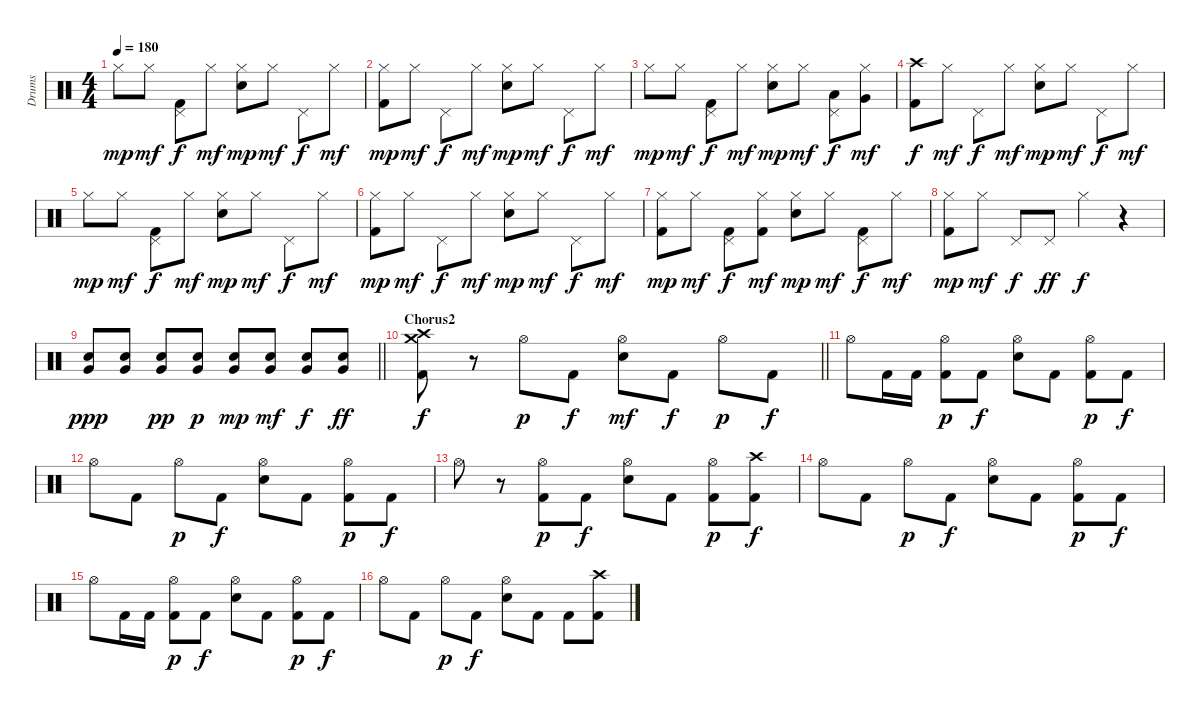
\track ("Drums" "Drums") {instrument percussion}
\staff {score}
\articulation defaults
\ts (4 4)
\tempo 180
\clef neutral
\ks c "Hi-Hat (closed)".8{dy mp} "Hi-Hat (closed)".8{dy mf}
("Kick (hit) 2" "Pedal Hi-Hat (hit)").8{dy f} "Hi-Hat (closed)".8{dy mf} ("Snare (hit) 2" "Hi-Hat (closed)").8{dy mp} "Hi-Hat (closed)".8{dy mf} "Pedal Hi-Hat (hit)".8{dy f} "Hi-Hat (closed)".8{dy mf} |
("Kick (hit) 2" "Hi-Hat (closed)").8{dy mp} "Hi-Hat (closed)".8{dy mf} "Pedal Hi-Hat (hit)".8{dy f} "Hi-Hat (closed)".8{dy mf} ("Snare (hit) 2" "Hi-Hat (closed)").8{dy mp} "Hi-Hat (closed)".8{dy mf} "Pedal Hi-Hat (hit)".8{dy f} "Hi-Hat (closed)".8{dy mf} |
"Hi-Hat (closed)".8{dy mp} "Hi-Hat (closed)".8{dy mf} ("Kick (hit) 2" "Pedal Hi-Hat (hit)").8{dy f} "Hi-Hat (closed)".8{dy mf} ("Snare (hit) 2" "Hi-Hat (closed)").8{dy mp} "Hi-Hat (closed)".8{dy mf} ("Low Tom (hit)" "Pedal Hi-Hat (hit)").8{dy f} ("Very Low Tom (hit)" "Hi-Hat (closed)").8{dy mf} |
("Kick (hit) 2" "Crash high (hit)").8{dy f} "Hi-Hat (closed)".8{dy mf} "Pedal Hi-Hat (hit)".8{dy f} "Hi-Hat (closed)".8{dy mf} ("Snare (hit) 2" "Hi-Hat (closed)").8{dy mp} "Hi-Hat (closed)".8{dy mf} "Pedal Hi-Hat (hit)".8{dy f} "Hi-Hat (closed)".8{dy mf} |
"Hi-Hat (closed)".8{dy mp} "Hi-Hat (closed)".8{dy mf} ("Kick (hit) 2" "Pedal Hi-Hat (hit)").8{dy f} "Hi-Hat (closed)".8{dy mf} ("Snare (hit) 2" "Hi-Hat (closed)").8{dy mp} "Hi-Hat (closed)".8{dy mf} "Pedal Hi-Hat (hit)".8{dy f} "Hi-Hat (closed)".8{dy mf} |
("Kick (hit) 2" "Hi-Hat (closed)").8{dy mp} "Hi-Hat (closed)".8{dy mf} "Pedal Hi-Hat (hit)".8{dy f} "Hi-Hat (closed)".8{dy mf} ("Snare (hit) 2" "Hi-Hat (closed)").8{dy mp} "Hi-Hat (closed)".8{dy mf} "Pedal Hi-Hat (hit)".8{dy f} "Hi-Hat (closed)".8{dy mf} |
("Kick (hit) 2" "Hi-Hat (closed)").8{dy mp} "Hi-Hat (closed)".8{dy mf} ("Kick (hit) 2" "Pedal Hi-Hat (hit)").8{dy f} ("Kick (hit) 2" "Hi-Hat (closed)").8{dy mf} ("Snare (hit) 2" "Hi-Hat (closed)").8{dy mp} "Hi-Hat (closed)".8{dy mf} ("Kick (hit) 2" "Pedal Hi-Hat (hit)").8{dy f} "Hi-Hat (closed)".8{dy mf} |
("Kick (hit) 2" "Hi-Hat (closed)").8{dy mp} "Hi-Hat (closed)".8{dy mf} "Pedal Hi-Hat (hit)".8{dy f} "Pedal Hi-Hat (hit)".8{dy ff} "Hi-Hat (closed)".4{dy f} r.4 |
\barLineRight lightlight
("Electric Snare (hit)" "Very Low Tom (hit)").8{dy ppp volume 13} ("Electric Snare (hit)" "Very Low Tom (hit)").8 ("Electric Snare (hit)" "Very Low Tom (hit)").8{dy pp} ("Electric Snare (hit)" "Very Low Tom (hit)").8{dy p} ("Electric Snare (hit)" "Very Low Tom (hit)").8{dy mp} ("Electric Snare (hit)" "Very Low Tom (hit)").8{dy mf} ("Electric Snare (hit)" "Very Low Tom (hit)").8{dy f} ("Electric Snare (hit)" "Very Low Tom (hit)").8{dy ff} |
\section ("" "Chorus2")
\barLineRight lightlight
("Crash high (hit)" "Crash medium (hit)" "Kick (hit) 2").8{dy f} r.8 "Hi-Hat (open)".8{dy p} "Kick (hit) 2".8{dy f} ("Hi-Hat (open)" "Electric Snare (hit)").8{dy mf} "Kick (hit) 2".8{dy f} "Hi-Hat (open)".8{dy p} "Kick (hit) 2".8{dy f} |
"Hi-Hat (open)".8 "Kick (hit) 2".16 "Kick (hit) 2".16 ("Hi-Hat (open)" "Kick (hit) 2").8{dy p} "Kick (hit) 2".8{dy f} ("Hi-Hat (open)" "Electric Snare (hit)").8 "Kick (hit) 2".8 ("Hi-Hat (open)" "Kick (hit) 2").8{dy p} "Kick (hit) 2".8{dy f} |
"Hi-Hat (open)".8 "Kick (hit) 2".8 "Hi-Hat (open)".8{dy p} "Kick (hit) 2".8{dy f} ("Hi-Hat (open)" "Electric Snare (hit)").8 "Kick (hit) 2".8 ("Hi-Hat (open)" "Kick (hit) 2").8{dy p} "Kick (hit) 2".8{dy f} |
"Hi-Hat (open)".8 r.8 ("Hi-Hat (open)" "Kick (hit) 2").8{dy p} "Kick (hit) 2".8{dy f} ("Hi-Hat (open)" "Electric Snare (hit)").8 "Kick (hit) 2".8 ("Hi-Hat (open)" "Kick (hit) 2").8{dy p} ("Crash high (hit)" "Kick (hit) 2").8{dy f} |
"Hi-Hat (open)".8 "Kick (hit) 2".8 "Hi-Hat (open)".8{dy p} "Kick (hit) 2".8{dy f} ("Hi-Hat (open)" "Electric Snare (hit)").8 "Kick (hit) 2".8 ("Hi-Hat (open)" "Kick (hit) 2").8{dy p} "Kick (hit) 2".8{dy f} |
"Hi-Hat (open)".8 "Kick (hit) 2".16 "Kick (hit) 2".16 ("Hi-Hat (open)" "Kick (hit) 2").8{dy p} "Kick (hit) 2".8{dy f} ("Hi-Hat (open)" "Electric Snare (hit)").8 "Kick (hit) 2".8 ("Hi-Hat (open)" "Kick (hit) 2").8{dy p} "Kick (hit) 2".8{dy f} |
"Hi-Hat (open)".8 "Kick (hit) 2".8 "Hi-Hat (open)".8{dy p} "Kick (hit) 2".8{dy f} ("Hi-Hat (open)" "Electric Snare (hit)").8 "Kick (hit) 2".8 "Kick (hit) 2".8 ("Crash high (hit)" "Kick (hit) 2").8
